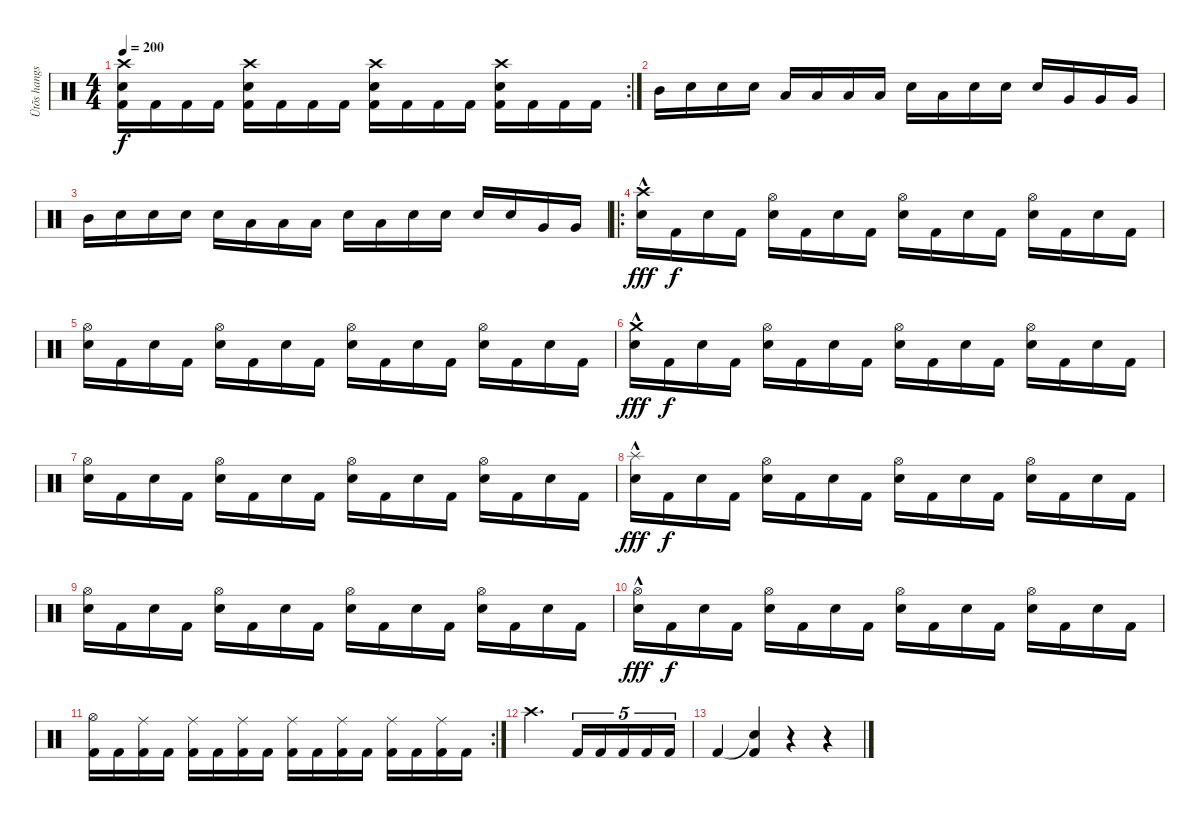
\track ("Ütõs hangszer" "Ütõs hangs") {instrument percussion}
\staff {score}
\articulation defaults
\rc 2
\ts (4 4)
\tempo 200
\clef neutral
\ks c
("Crash high (hit)" "Snare (hit) 2" "Kick (hit) 2").16{dy f} "Kick (hit) 2".16 "Kick (hit) 2".16 "Kick (hit) 2".16 ("Crash high (hit)" "Snare (hit) 2" "Kick (hit) 2").16 "Kick (hit) 2".16 "Kick (hit) 2".16 "Kick (hit) 2".16 ("Crash high (hit)" "Snare (hit) 2" "Kick (hit) 2").16 "Kick (hit) 2".16 "Kick (hit) 2".16 "Kick (hit) 2".16 ("Crash high (hit)" "Snare (hit) 2" "Kick (hit) 2").16 "Kick (hit) 2".16 "Kick (hit) 2".16 "Kick (hit) 2".16 |
"Mid Tom (hit)".16 "Snare (hit) 2".16 "Snare (hit) 2".16 "Snare (hit) 2".16 "Low Tom (hit)".16 "Low Tom (hit)".16 "Low Tom (hit)".16 "Low Tom (hit)".16 "Snare (hit) 2".16 "Low Tom (hit)".16 "Snare (hit) 2".16 "Snare (hit) 2".16 "Snare (hit) 2".16 "Very Low Tom (hit)".16 "Very Low Tom (hit)".16 "Very Low Tom (hit)".16 |
"Mid Tom (hit)".16 "Snare (hit) 2".16 "Snare (hit) 2".16 "Snare (hit) 2".16 "Snare (hit) 2".16 "Low Tom (hit)".16 "Low Tom (hit)".16 "Low Tom (hit)".16 "Snare (hit) 2".16 "Low Tom (hit)".16 "Snare (hit) 2".16 "Snare (hit) 2".16 "Snare (hit) 2".16 "Snare (hit) 2".16 "Very Low Tom (hit)".16 "Very Low Tom (hit)".16 |
\ro
("Crash high (hit)"{hac} "Snare (hit) 2").16{dy fff} "Kick (hit) 2".16{dy f} "Snare (hit) 2".16 "Kick (hit) 2".16 ("Hi-Hat (open)" "Snare (hit) 2").16 "Kick (hit) 2".16 "Snare (hit) 2".16 "Kick (hit) 2".16 ("Hi-Hat (open)" "Snare (hit) 2").16 "Kick (hit) 2".16 "Snare (hit) 2".16 "Kick (hit) 2".16 ("Hi-Hat (open)" "Snare (hit) 2").16 "Kick (hit) 2".16 "Snare (hit) 2".16 "Kick (hit) 2".16 |
("Hi-Hat (open)" "Snare (hit) 2").16 "Kick (hit) 2".16 "Snare (hit) 2".16 "Kick (hit) 2".16 ("Hi-Hat (open)" "Snare (hit) 2").16 "Kick (hit) 2".16 "Snare (hit) 2".16 "Kick (hit) 2".16 ("Hi-Hat (open)" "Snare (hit) 2").16 "Kick (hit) 2".16 "Snare (hit) 2".16 "Kick (hit) 2".16 ("Hi-Hat (open)" "Snare (hit) 2").16 "Kick (hit) 2".16 "Snare (hit) 2".16 "Kick (hit) 2".16 |
("Crash medium (hit)"{hac} "Snare (hit) 2").16{dy fff} "Kick (hit) 2".16{dy f} "Snare (hit) 2".16 "Kick (hit) 2".16 ("Hi-Hat (open)" "Snare (hit) 2").16 "Kick (hit) 2".16 "Snare (hit) 2".16 "Kick (hit) 2".16 ("Hi-Hat (open)" "Snare (hit) 2").16 "Kick (hit) 2".16 "Snare (hit) 2".16 "Kick (hit) 2".16 ("Hi-Hat (open)" "Snare (hit) 2").16 "Kick (hit) 2".16 "Snare (hit) 2".16 "Kick (hit) 2".16 |
("Hi-Hat (open)" "Snare (hit) 2").16 "Kick (hit) 2".16 "Snare (hit) 2".16 "Kick (hit) 2".16 ("Hi-Hat (open)" "Snare (hit) 2").16 "Kick (hit) 2".16 "Snare (hit) 2".16 "Kick (hit) 2".16 ("Hi-Hat (open)" "Snare (hit) 2").16 "Kick (hit) 2".16 "Snare (hit) 2".16 "Kick (hit) 2".16 ("Hi-Hat (open)" "Snare (hit) 2").16 "Kick (hit) 2".16 "Snare (hit) 2".16 "Kick (hit) 2".16 |
("Splash (hit)"{hac} "Snare (hit) 2").16{dy fff} "Kick (hit) 2".16{dy f} "Snare (hit) 2".16 "Kick (hit) 2".16 ("Hi-Hat (open)" "Snare (hit) 2").16 "Kick (hit) 2".16 "Snare (hit) 2".16 "Kick (hit) 2".16 ("Hi-Hat (open)" "Snare (hit) 2").16 "Kick (hit) 2".16 "Snare (hit) 2".16 "Kick (hit) 2".16 ("Hi-Hat (open)" "Snare (hit) 2").16 "Kick (hit) 2".16 "Snare (hit) 2".16 "Kick (hit) 2".16 |
("Hi-Hat (open)" "Snare (hit) 2").16 "Kick (hit) 2".16 "Snare (hit) 2".16 "Kick (hit) 2".16 ("Hi-Hat (open)" "Snare (hit) 2").16 "Kick (hit) 2".16 "Snare (hit) 2".16 "Kick (hit) 2".16 ("Hi-Hat (open)" "Snare (hit) 2").16 "Kick (hit) 2".16 "Snare (hit) 2".16 "Kick (hit) 2".16 ("Hi-Hat (open)" "Snare (hit) 2").16 "Kick (hit) 2".16 "Snare (hit) 2".16 "Kick (hit) 2".16 |
("Hi-Hat (open)"{hac} "Snare (hit) 2").16{dy fff} "Kick (hit) 2".16{dy f} "Snare (hit) 2".16 "Kick (hit) 2".16 ("Hi-Hat (open)" "Snare (hit) 2").16 "Kick (hit) 2".16 "Snare (hit) 2".16 "Kick (hit) 2".16 ("Hi-Hat (open)" "Snare (hit) 2").16 "Kick (hit) 2".16 "Snare (hit) 2".16 "Kick (hit) 2".16 ("Hi-Hat (open)" "Snare (hit) 2").16 "Kick (hit) 2".16 "Snare (hit) 2".16 "Kick (hit) 2".16 |
\rc 2
("Hi-Hat (open)" "Kick (hit) 2").16 "Kick (hit) 2".16 ("Ride (middle)" "Kick (hit) 2").16 "Kick (hit) 2".16 ("Ride (middle)" "Kick (hit) 2").16 "Kick (hit) 2".16 ("Ride (middle)" "Kick (hit) 2").16 "Kick (hit) 2".16 ("Ride (middle)" "Kick (hit) 2").16 "Kick (hit) 2".16 ("Ride (middle)" "Kick (hit) 2").16 "Kick (hit) 2".16 ("Ride (middle)" "Kick (hit) 2").16 "Kick (hit) 2".16 ("Ride (middle)" "Kick (hit) 2").16 "Kick (hit) 2".16 |
"Crash high (hit)".2{d} "Kick (hit) 2".16{tu (5 4)} "Kick (hit) 2".16{tu (5 4)} "Kick (hit) 2".16{tu (5 4)} "Kick (hit) 2".16{tu (5 4)} "Kick (hit) 2".16{tu (5 4)} |
"Kick (hit) 2".4 ("Snare (hit)"{t} "Kick (hit) 2").4 r.4 r.4
